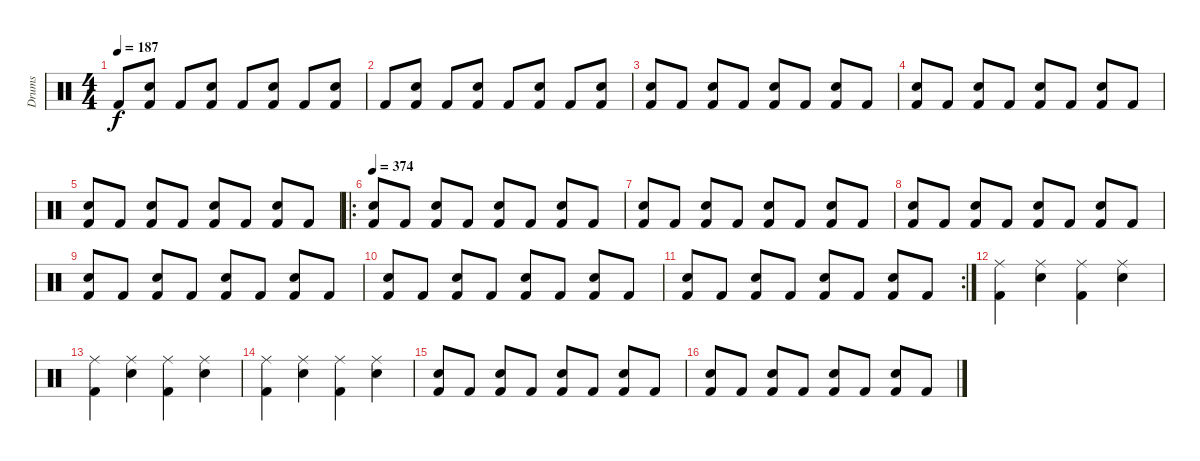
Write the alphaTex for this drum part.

\track ("Drums" "Drums") {instrument percussion}
\staff {score}
\articulation defaults
\ts (4 4)
\tempo 187
\clef neutral
\ks c "Kick (hit) 2".8{dy f}
("Snare (hit) 2" "Kick (hit) 2").8 "Kick (hit) 2".8 ("Snare (hit) 2" "Kick (hit) 2").8 "Kick (hit) 2".8 ("Snare (hit) 2" "Kick (hit) 2").8 "Kick (hit) 2".8 ("Snare (hit) 2" "Kick (hit) 2").8 |
"Kick (hit) 2".8 ("Snare (hit) 2" "Kick (hit) 2").8 "Kick (hit) 2".8 ("Snare (hit) 2" "Kick (hit) 2").8 "Kick (hit) 2".8 ("Snare (hit) 2" "Kick (hit) 2").8 "Kick (hit) 2".8 ("Snare (hit) 2" "Kick (hit) 2").8 |
("Snare (hit) 2" "Kick (hit) 2").8 "Kick (hit) 2".8 ("Snare (hit) 2" "Kick (hit) 2").8 "Kick (hit) 2".8 ("Snare (hit) 2" "Kick (hit) 2").8 "Kick (hit) 2".8 ("Snare (hit) 2" "Kick (hit) 2").8 "Kick (hit) 2".8 |
("Snare (hit) 2" "Kick (hit) 2").8 "Kick (hit) 2".8 ("Snare (hit) 2" "Kick (hit) 2").8 "Kick (hit) 2".8 ("Snare (hit) 2" "Kick (hit) 2").8 "Kick (hit) 2".8 ("Snare (hit) 2" "Kick (hit) 2").8 "Kick (hit) 2".8 |
("Snare (hit) 2" "Kick (hit) 2").8 "Kick (hit) 2".8 ("Snare (hit) 2" "Kick (hit) 2").8 "Kick (hit) 2".8 ("Snare (hit) 2" "Kick (hit) 2").8 "Kick (hit) 2".8 ("Snare (hit) 2" "Kick (hit) 2").8 "Kick (hit) 2".8 |
\ro
\tempo 374
("Snare (hit) 2" "Kick (hit) 2").8 "Kick (hit) 2".8 ("Snare (hit) 2" "Kick (hit) 2").8 "Kick (hit) 2".8 ("Snare (hit) 2" "Kick (hit) 2").8 "Kick (hit) 2".8 ("Snare (hit) 2" "Kick (hit) 2").8 "Kick (hit) 2".8 |
("Snare (hit) 2" "Kick (hit) 2").8 "Kick (hit) 2".8 ("Snare (hit) 2" "Kick (hit) 2").8 "Kick (hit) 2".8 ("Snare (hit) 2" "Kick (hit) 2").8 "Kick (hit) 2".8 ("Snare (hit) 2" "Kick (hit) 2").8 "Kick (hit) 2".8 |
("Snare (hit) 2" "Kick (hit) 2").8 "Kick (hit) 2".8 ("Snare (hit) 2" "Kick (hit) 2").8 "Kick (hit) 2".8 ("Snare (hit) 2" "Kick (hit) 2").8 "Kick (hit) 2".8 ("Snare (hit) 2" "Kick (hit) 2").8 "Kick (hit) 2".8 |
("Snare (hit) 2" "Kick (hit) 2").8 "Kick (hit) 2".8 ("Snare (hit) 2" "Kick (hit) 2").8 "Kick (hit) 2".8 ("Snare (hit) 2" "Kick (hit) 2").8 "Kick (hit) 2".8 ("Snare (hit) 2" "Kick (hit) 2").8 "Kick (hit) 2".8 |
("Snare (hit) 2" "Kick (hit) 2").8 "Kick (hit) 2".8 ("Snare (hit) 2" "Kick (hit) 2").8 "Kick (hit) 2".8 ("Snare (hit) 2" "Kick (hit) 2").8 "Kick (hit) 2".8 ("Snare (hit) 2" "Kick (hit) 2").8 "Kick (hit) 2".8 |
\rc 2
("Snare (hit) 2" "Kick (hit) 2").8 "Kick (hit) 2".8 ("Snare (hit) 2" "Kick (hit) 2").8 "Kick (hit) 2".8 ("Snare (hit) 2" "Kick (hit) 2").8 "Kick (hit) 2".8 ("Snare (hit) 2" "Kick (hit) 2").8 "Kick (hit) 2".8 |
("Ride (middle)" "Kick (hit) 2").4 ("Ride (middle)" "Snare (hit) 2").4 ("Ride (middle)" "Kick (hit) 2").4 ("Ride (middle)" "Snare (hit) 2").4 |
("Ride (middle)" "Kick (hit) 2").4 ("Ride (middle)" "Snare (hit) 2").4 ("Ride (middle)" "Kick (hit) 2").4 ("Ride (middle)" "Snare (hit) 2").4 |
("Ride (middle)" "Kick (hit) 2").4 ("Ride (middle)" "Snare (hit) 2").4 ("Ride (middle)" "Kick (hit) 2").4 ("Ride (middle)" "Snare (hit) 2").4 |
("Snare (hit) 2" "Kick (hit) 2").8 "Kick (hit) 2".8 ("Snare (hit) 2" "Kick (hit) 2").8 "Kick (hit) 2".8 ("Snare (hit) 2" "Kick (hit) 2").8 "Kick (hit) 2".8 ("Snare (hit) 2" "Kick (hit) 2").8 "Kick (hit) 2".8 |
("Snare (hit) 2" "Kick (hit) 2").8 "Kick (hit) 2".8 ("Snare (hit) 2" "Kick (hit) 2").8 "Kick (hit) 2".8 ("Snare (hit) 2" "Kick (hit) 2").8 "Kick (hit) 2".8 ("Snare (hit) 2" "Kick (hit) 2").8 "Kick (hit) 2".8
